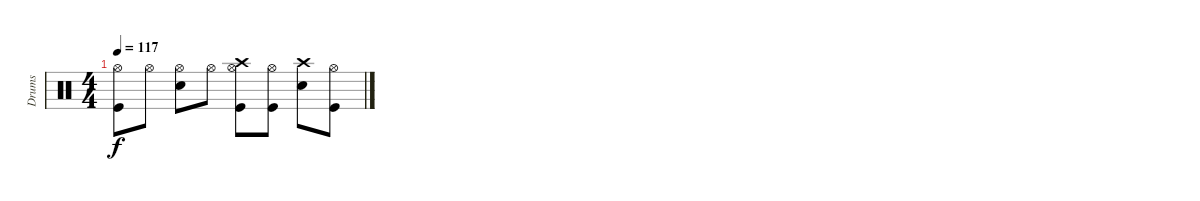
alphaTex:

\track ("Drums" "Drums") {instrument percussion}
\staff {score}
\articulation defaults
\ts (4 4)
\tempo 117
\clef neutral
\ks c
("Hi-Hat (open)" "Kick (hit)").8{dy f} "Hi-Hat (open)".8 ("Hi-Hat (open)" "Snare (hit) 2").8 "Hi-Hat (open)".8 ("Hi-Hat (open)" "Crash high (hit)" "Kick (hit)").8 ("Hi-Hat (open)" "Kick (hit)").8 ("Crash high (hit)" "Snare (hit) 2").8 ("Hi-Hat (open)" "Kick (hit)").8
